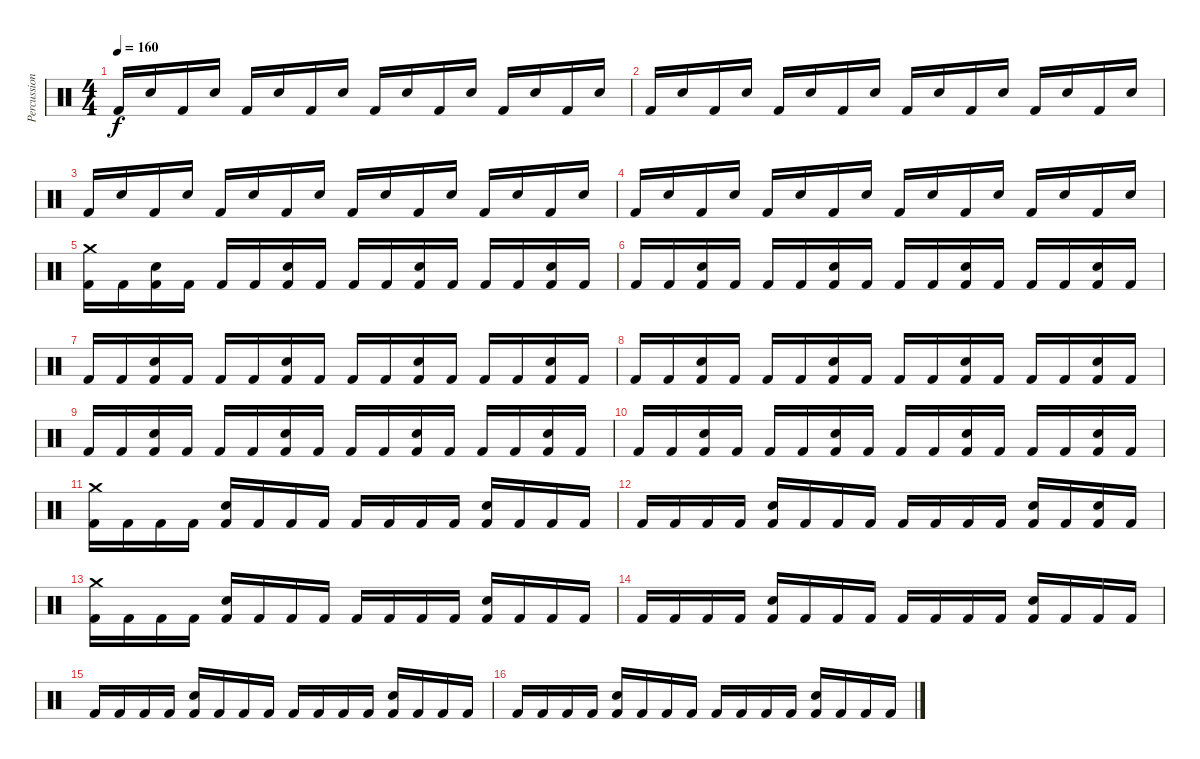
\track ("Percussions" "Percussion") {instrument percussion}
\staff {score}
\articulation defaults
\ts (4 4)
\tempo 160
\clef neutral
\ks c "Kick (hit) 2".16{dy f} "Snare (hit) 2".16 "Kick (hit) 2".16 "Snare (hit) 2".16 "Kick (hit) 2".16 "Snare (hit) 2".16 "Kick (hit) 2".16 "Snare (hit) 2".16 "Kick (hit) 2".16 "Snare (hit) 2".16 "Kick (hit) 2".16 "Snare (hit) 2".16 "Kick (hit) 2".16 "Snare (hit) 2".16 "Kick (hit) 2".16 "Snare (hit) 2".16
|
"Kick (hit) 2".16 "Snare (hit) 2".16 "Kick (hit) 2".16 "Snare (hit) 2".16 "Kick (hit) 2".16 "Snare (hit) 2".16 "Kick (hit) 2".16 "Snare (hit) 2".16 "Kick (hit) 2".16 "Snare (hit) 2".16 "Kick (hit) 2".16 "Snare (hit) 2".16 "Kick (hit) 2".16 "Snare (hit) 2".16 "Kick (hit) 2".16 "Snare (hit) 2".16 |
"Kick (hit) 2".16 "Snare (hit) 2".16 "Kick (hit) 2".16 "Snare (hit) 2".16 "Kick (hit) 2".16 "Snare (hit) 2".16 "Kick (hit) 2".16 "Snare (hit) 2".16 "Kick (hit) 2".16 "Snare (hit) 2".16 "Kick (hit) 2".16 "Snare (hit) 2".16 "Kick (hit) 2".16 "Snare (hit) 2".16 "Kick (hit) 2".16 "Snare (hit) 2".16 |
"Kick (hit) 2".16 "Snare (hit) 2".16 "Kick (hit) 2".16 "Snare (hit) 2".16 "Kick (hit) 2".16 "Snare (hit) 2".16 "Kick (hit) 2".16 "Snare (hit) 2".16 "Kick (hit) 2".16 "Snare (hit) 2".16 "Kick (hit) 2".16 "Snare (hit) 2".16 "Kick (hit) 2".16 "Snare (hit) 2".16 "Kick (hit) 2".16 "Snare (hit) 2".16 |
("Crash medium (hit)" "Kick (hit) 2").16 "Kick (hit) 2".16 ("Snare (hit) 2" "Kick (hit) 2").16 "Kick (hit) 2".16 "Kick (hit) 2".16 "Kick (hit) 2".16 ("Snare (hit) 2" "Kick (hit) 2").16 "Kick (hit) 2".16 "Kick (hit) 2".16 "Kick (hit) 2".16 ("Snare (hit) 2" "Kick (hit) 2").16 "Kick (hit) 2".16 "Kick (hit) 2".16 "Kick (hit) 2".16 ("Snare (hit) 2" "Kick (hit) 2").16 "Kick (hit) 2".16 |
"Kick (hit) 2".16 "Kick (hit) 2".16 ("Snare (hit) 2" "Kick (hit) 2").16 "Kick (hit) 2".16 "Kick (hit) 2".16 "Kick (hit) 2".16 ("Snare (hit) 2" "Kick (hit) 2").16 "Kick (hit) 2".16 "Kick (hit) 2".16 "Kick (hit) 2".16 ("Snare (hit) 2" "Kick (hit) 2").16 "Kick (hit) 2".16 "Kick (hit) 2".16 "Kick (hit) 2".16 ("Snare (hit) 2" "Kick (hit) 2").16 "Kick (hit) 2".16 |
"Kick (hit) 2".16 "Kick (hit) 2".16 ("Snare (hit) 2" "Kick (hit) 2").16 "Kick (hit) 2".16 "Kick (hit) 2".16 "Kick (hit) 2".16 ("Snare (hit) 2" "Kick (hit) 2").16 "Kick (hit) 2".16 "Kick (hit) 2".16 "Kick (hit) 2".16 ("Snare (hit) 2" "Kick (hit) 2").16 "Kick (hit) 2".16 "Kick (hit) 2".16 "Kick (hit) 2".16 ("Snare (hit) 2" "Kick (hit) 2").16 "Kick (hit) 2".16 |
"Kick (hit) 2".16 "Kick (hit) 2".16 ("Snare (hit) 2" "Kick (hit) 2").16 "Kick (hit) 2".16 "Kick (hit) 2".16 "Kick (hit) 2".16 ("Snare (hit) 2" "Kick (hit) 2").16 "Kick (hit) 2".16 "Kick (hit) 2".16 "Kick (hit) 2".16 ("Snare (hit) 2" "Kick (hit) 2").16 "Kick (hit) 2".16 "Kick (hit) 2".16 "Kick (hit) 2".16 ("Snare (hit) 2" "Kick (hit) 2").16 "Kick (hit) 2".16 |
"Kick (hit) 2".16 "Kick (hit) 2".16 ("Snare (hit) 2" "Kick (hit) 2").16 "Kick (hit) 2".16 "Kick (hit) 2".16 "Kick (hit) 2".16 ("Snare (hit) 2" "Kick (hit) 2").16 "Kick (hit) 2".16 "Kick (hit) 2".16 "Kick (hit) 2".16 ("Snare (hit) 2" "Kick (hit) 2").16 "Kick (hit) 2".16 "Kick (hit) 2".16 "Kick (hit) 2".16 ("Snare (hit) 2" "Kick (hit) 2").16 "Kick (hit) 2".16 |
"Kick (hit) 2".16 "Kick (hit) 2".16 ("Snare (hit) 2" "Kick (hit) 2").16 "Kick (hit) 2".16 "Kick (hit) 2".16 "Kick (hit) 2".16 ("Snare (hit) 2" "Kick (hit) 2").16 "Kick (hit) 2".16 "Kick (hit) 2".16 "Kick (hit) 2".16 ("Snare (hit) 2" "Kick (hit) 2").16 "Kick (hit) 2".16 "Kick (hit) 2".16 "Kick (hit) 2".16 ("Snare (hit) 2" "Kick (hit) 2").16 "Kick (hit) 2".16 |
("Crash medium (hit)" "Kick (hit) 2").16 "Kick (hit) 2".16 "Kick (hit) 2".16 "Kick (hit) 2".16 ("Snare (hit) 2" "Kick (hit) 2").16 "Kick (hit) 2".16 "Kick (hit) 2".16 "Kick (hit) 2".16 "Kick (hit) 2".16 "Kick (hit) 2".16 "Kick (hit) 2".16 "Kick (hit) 2".16 ("Snare (hit) 2" "Kick (hit) 2").16 "Kick (hit) 2".16 "Kick (hit) 2".16 "Kick (hit) 2".16 |
"Kick (hit) 2".16 "Kick (hit) 2".16 "Kick (hit) 2".16 "Kick (hit) 2".16 ("Snare (hit) 2" "Kick (hit) 2").16 "Kick (hit) 2".16 "Kick (hit) 2".16 "Kick (hit) 2".16 "Kick (hit) 2".16 "Kick (hit) 2".16 "Kick (hit) 2".16 "Kick (hit) 2".16 ("Snare (hit) 2" "Kick (hit) 2").16 "Kick (hit) 2".16 ("Snare (hit) 2" "Kick (hit) 2").16 "Kick (hit) 2".16 |
("Crash medium (hit)" "Kick (hit) 2").16 "Kick (hit) 2".16 "Kick (hit) 2".16 "Kick (hit) 2".16 ("Snare (hit) 2" "Kick (hit) 2").16 "Kick (hit) 2".16 "Kick (hit) 2".16 "Kick (hit) 2".16 "Kick (hit) 2".16 "Kick (hit) 2".16 "Kick (hit) 2".16 "Kick (hit) 2".16 ("Snare (hit) 2" "Kick (hit) 2").16 "Kick (hit) 2".16 "Kick (hit) 2".16 "Kick (hit) 2".16 |
"Kick (hit) 2".16 "Kick (hit) 2".16 "Kick (hit) 2".16 "Kick (hit) 2".16 ("Snare (hit) 2" "Kick (hit) 2").16 "Kick (hit) 2".16 "Kick (hit) 2".16 "Kick (hit) 2".16 "Kick (hit) 2".16 "Kick (hit) 2".16 "Kick (hit) 2".16 "Kick (hit) 2".16 ("Snare (hit) 2" "Kick (hit) 2").16 "Kick (hit) 2".16 "Kick (hit) 2".16 "Kick (hit) 2".16 |
"Kick (hit) 2".16 "Kick (hit) 2".16 "Kick (hit) 2".16 "Kick (hit) 2".16 ("Snare (hit) 2" "Kick (hit) 2").16 "Kick (hit) 2".16 "Kick (hit) 2".16 "Kick (hit) 2".16 "Kick (hit) 2".16 "Kick (hit) 2".16 "Kick (hit) 2".16 "Kick (hit) 2".16 ("Snare (hit) 2" "Kick (hit) 2").16 "Kick (hit) 2".16 "Kick (hit) 2".16 "Kick (hit) 2".16 |
"Kick (hit) 2".16 "Kick (hit) 2".16 "Kick (hit) 2".16 "Kick (hit) 2".16 ("Snare (hit) 2" "Kick (hit) 2").16 "Kick (hit) 2".16 "Kick (hit) 2".16 "Kick (hit) 2".16 "Kick (hit) 2".16 "Kick (hit) 2".16 "Kick (hit) 2".16 "Kick (hit) 2".16 ("Snare (hit) 2" "Kick (hit) 2").16 "Kick (hit) 2".16 "Kick (hit) 2".16 "Kick (hit) 2".16
